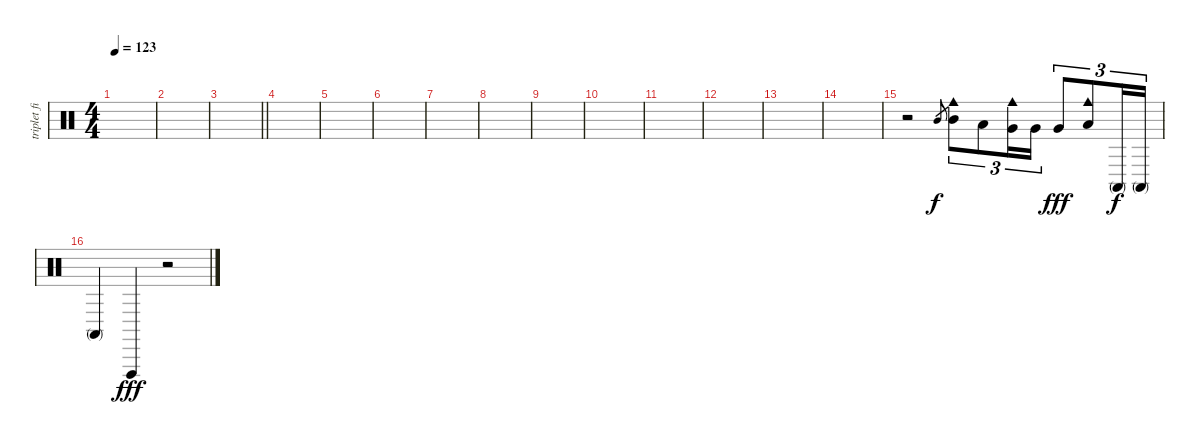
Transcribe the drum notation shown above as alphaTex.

\track ("triplet fills" "triplet fi") {instrument percussion}
\staff {score}
\articulation defaults
\ts (4 4)
\tempo 123
\clef neutral
\ks c
|
|
\barLineRight lightlight
|
|
|
|
|
|
|
|
|
|
|
|
r.2 "Mid Tom (hit)".8{gr} ("Cowbell medium (hit)" "Mid Tom (hit)").8{tu (3 2)} "Low Tom (hit)".8{tu (3 2)} ("Cowbell medium (hit)" "Very Low Tom (hit)").16{tu (3 2)} "Very Low Tom (hit)".16{tu (3 2) dy f} "Very Low Tom (hit)".8{tu (3 2) dy fff} ("Cowbell medium (hit)" "Low Floor Tom (hit)").8{tu (3 2)} "Conga high (mute)".16{tu (3 2) dy f} "Conga high (mute)".16{tu (3 2)} |
"Conga high (mute)".4 "Vibraslap (hit)".4{dy fff} r.2
